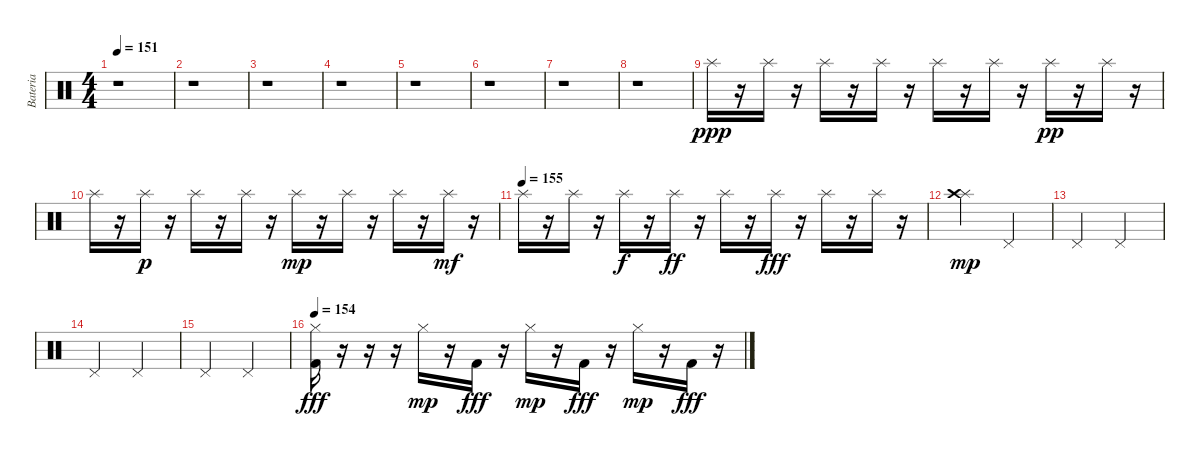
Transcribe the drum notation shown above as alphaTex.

\track ("Bateria" "Bateria") {instrument percussion}
\staff {score}
\articulation defaults
\ts (4 4)
\tempo 151
\clef neutral
\ks c
r.1{dy ppp} |
r.1 |
r.1 |
r.1 |
r.1 |
r.1 |
r.1 |
r.1 |
"Splash (hit)".16{volume 12} r.16 "Splash (hit)".16 r.16 "Splash (hit)".16 r.16 "Splash (hit)".16 r.16 "Splash (hit)".16 r.16 "Splash (hit)".16 r.16 "Splash (hit)".16{dy pp} r.16 "Splash (hit)".16 r.16 |
"Splash (hit)".16 r.16 "Splash (hit)".16{dy p} r.16 "Splash (hit)".16 r.16 "Splash (hit)".16 r.16 "Splash (hit)".16{dy mp} r.16 "Splash (hit)".16 r.16 "Splash (hit)".16 r.16 "Splash (hit)".16{dy mf} r.16 |
\tempo (155)
"Splash (hit)".16 r.16 "Splash (hit)".16 r.16 "Splash (hit)".16{dy f} r.16 "Splash (hit)".16{dy ff} r.16 "Splash (hit)".16 r.16 "Splash (hit)".16{dy fff} r.16 "Splash (hit)".16 r.16 "Splash (hit)".16 r.16 |
("Splash (hit)" "Crash high (hit)").2{dy mp volume 15} "Pedal Hi-Hat (hit)".2 |
"Pedal Hi-Hat (hit)".2 "Pedal Hi-Hat (hit)".2 |
"Pedal Hi-Hat (hit)".2 "Pedal Hi-Hat (hit)".2 |
"Pedal Hi-Hat (hit)".2 "Pedal Hi-Hat (hit)".2 |
\tempo 154
("Hi-Hat (closed)" "Kick (hit) 2").16{dy fff} r.16 r.16 r.16 "Hi-Hat (closed)".16{dy mp} r.16 "Kick (hit) 2".16{dy fff} r.16 "Hi-Hat (closed)".16{dy mp} r.16 "Kick (hit) 2".16{dy fff} r.16 "Hi-Hat (closed)".16{dy mp} r.16 "Kick (hit) 2".16{dy fff} r.16
